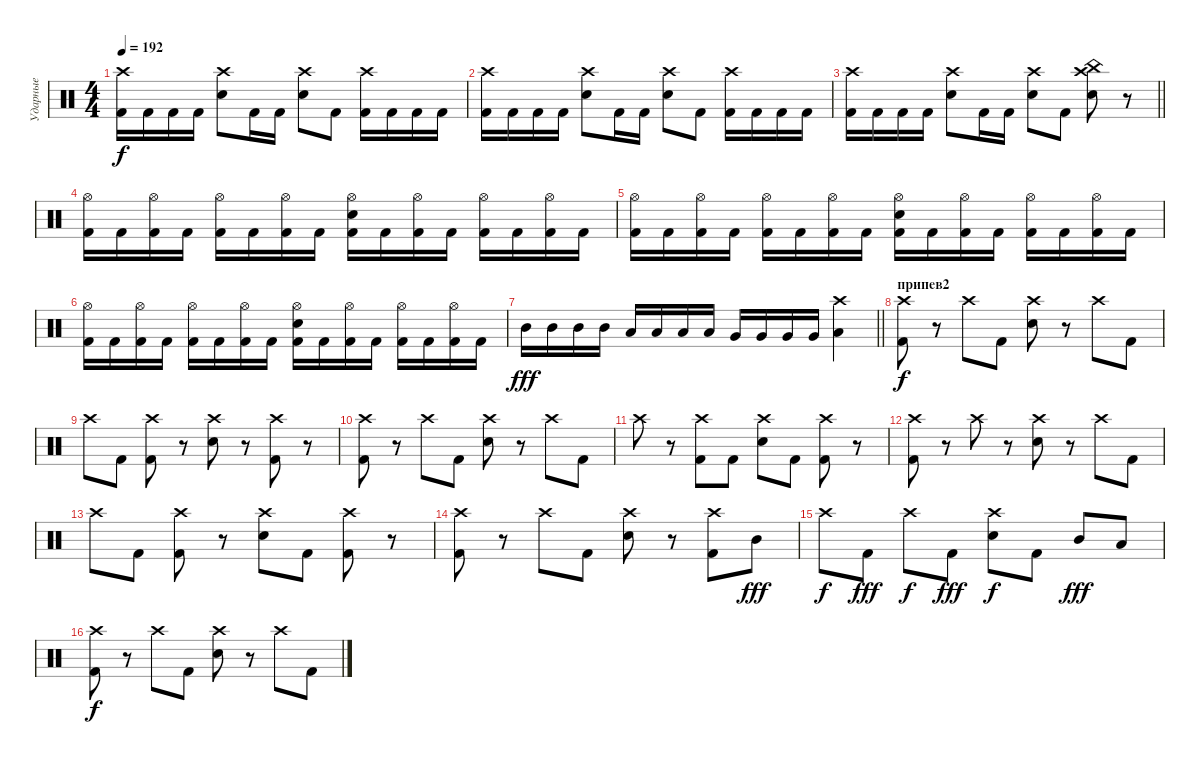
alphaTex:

\track ("Ударные" "Ударные") {instrument percussion}
\staff {score}
\articulation defaults
\ts (4 4)
\tempo 192
\clef neutral
\ks c
("Crash high (hit)" "Kick (hit) 2").16{dy f} "Kick (hit) 2".16 "Kick (hit) 2".16 "Kick (hit) 2".16 ("Crash high (hit)" "Electric Snare (hit)").8 "Kick (hit) 2".16 "Kick (hit) 2".16 ("Crash high (hit)" "Electric Snare (hit)").8 "Kick (hit) 2".8 ("Crash high (hit)" "Kick (hit) 2").16 "Kick (hit) 2".16 "Kick (hit) 2".16 "Kick (hit) 2".16 |
("Crash high (hit)" "Kick (hit) 2").16 "Kick (hit) 2".16 "Kick (hit) 2".16 "Kick (hit) 2".16 ("Crash high (hit)" "Electric Snare (hit)").8 "Kick (hit) 2".16 "Kick (hit) 2".16 ("Crash high (hit)" "Electric Snare (hit)").8 "Kick (hit) 2".8 ("Crash high (hit)" "Kick (hit) 2").16 "Kick (hit) 2".16 "Kick (hit) 2".16 "Kick (hit) 2".16 |
\barLineRight lightlight
("Crash high (hit)" "Kick (hit) 2").16 "Kick (hit) 2".16 "Kick (hit) 2".16 "Kick (hit) 2".16 ("Crash high (hit)" "Electric Snare (hit)").8 "Kick (hit) 2".16 "Kick (hit) 2".16 ("Crash high (hit)" "Electric Snare (hit)").8 "Kick (hit) 2".8 ("Crash high (hit)" "China (hit)" "Electric Snare (hit)").8 r.8 |
("Hi-Hat (open)" "Kick (hit) 2").16 "Kick (hit) 2".16 ("Hi-Hat (open)" "Kick (hit) 2").16 "Kick (hit) 2".16 ("Hi-Hat (open)" "Kick (hit) 2").16 "Kick (hit) 2".16 ("Hi-Hat (open)" "Kick (hit) 2").16 "Kick (hit) 2".16 ("Hi-Hat (open)" "Electric Snare (hit)" "Kick (hit) 2").16 "Kick (hit) 2".16 ("Hi-Hat (open)" "Kick (hit) 2").16 "Kick (hit) 2".16 ("Hi-Hat (open)" "Kick (hit) 2").16 "Kick (hit) 2".16 ("Hi-Hat (open)" "Kick (hit) 2").16 "Kick (hit) 2".16 |
("Hi-Hat (open)" "Kick (hit) 2").16 "Kick (hit) 2".16 ("Hi-Hat (open)" "Kick (hit) 2").16 "Kick (hit) 2".16 ("Hi-Hat (open)" "Kick (hit) 2").16 "Kick (hit) 2".16 ("Hi-Hat (open)" "Kick (hit) 2").16 "Kick (hit) 2".16 ("Hi-Hat (open)" "Electric Snare (hit)" "Kick (hit) 2").16 "Kick (hit) 2".16 ("Hi-Hat (open)" "Kick (hit) 2").16 "Kick (hit) 2".16 ("Hi-Hat (open)" "Kick (hit) 2").16 "Kick (hit) 2".16 ("Hi-Hat (open)" "Kick (hit) 2").16 "Kick (hit) 2".16 |
("Hi-Hat (open)" "Kick (hit) 2").16 "Kick (hit) 2".16 ("Hi-Hat (open)" "Kick (hit) 2").16 "Kick (hit) 2".16 ("Hi-Hat (open)" "Kick (hit) 2").16 "Kick (hit) 2".16 ("Hi-Hat (open)" "Kick (hit) 2").16 "Kick (hit) 2".16 ("Hi-Hat (open)" "Electric Snare (hit)" "Kick (hit) 2").16 "Kick (hit) 2".16 ("Hi-Hat (open)" "Kick (hit) 2").16 "Kick (hit) 2".16 ("Hi-Hat (open)" "Kick (hit) 2").16 "Kick (hit) 2".16 ("Hi-Hat (open)" "Kick (hit) 2").16 "Kick (hit) 2".16 |
\barLineRight lightlight "Mid Tom (hit)".16{dy fff} "Mid Tom (hit)".16 "Mid Tom (hit)".16 "Mid Tom (hit)".16 "Low Tom (hit)".16 "Low Tom (hit)".16 "Low Tom (hit)".16 "Low Tom (hit)".16 "Very Low Tom (hit)".16 "Very Low Tom (hit)".16 "Very Low Tom (hit)".16 "Very Low Tom (hit)".16
("Crash high (hit)" "Low Floor Tom (hit)").4 |
\section ("" "припев2")
("Crash high (hit)" "Kick (hit) 2").8{dy f} r.8 "Crash high (hit)".8 "Kick (hit) 2".8 ("Crash high (hit)" "Electric Snare (hit)").8 r.8 "Crash high (hit)".8 "Kick (hit) 2".8 |
"Crash high (hit)".8 "Kick (hit) 2".8 ("Crash high (hit)" "Kick (hit) 2").8 r.8 ("Crash high (hit)" "Electric Snare (hit)").8 r.8 ("Crash high (hit)" "Kick (hit) 2").8 r.8 |
("Crash high (hit)" "Kick (hit) 2").8 r.8 "Crash high (hit)".8 "Kick (hit) 2".8 ("Crash high (hit)" "Electric Snare (hit)").8 r.8 "Crash high (hit)".8 "Kick (hit) 2".8 |
"Crash high (hit)".8 r.8 ("Crash high (hit)" "Kick (hit) 2").8 "Kick (hit) 2".8 ("Crash high (hit)" "Electric Snare (hit)").8 "Kick (hit) 2".8 ("Crash high (hit)" "Kick (hit) 2").8 r.8 |
("Crash high (hit)" "Kick (hit) 2").8 r.8 "Crash high (hit)".8 r.8 ("Crash high (hit)" "Electric Snare (hit)").8 r.8 "Crash high (hit)".8 "Kick (hit) 2".8 |
"Crash high (hit)".8 "Kick (hit) 2".8 ("Crash high (hit)" "Kick (hit) 2").8 r.8 ("Crash high (hit)" "Electric Snare (hit)").8 "Kick (hit) 2".8 ("Crash high (hit)" "Kick (hit) 2").8 r.8 |
("Crash high (hit)" "Kick (hit) 2").8 r.8 "Crash high (hit)".8 "Kick (hit) 2".8 ("Crash high (hit)" "Electric Snare (hit)").8 r.8 ("Crash high (hit)" "Kick (hit) 2").8 "Mid Tom (hit)".8{dy fff} |
"Crash high (hit)".8{dy f} "Kick (hit) 2".8{dy fff} "Crash high (hit)".8{dy f} "Kick (hit) 2".8{dy fff} ("Crash high (hit)" "Electric Snare (hit)").8{dy f} "Kick (hit) 2".8 "Mid Tom (hit)".8{dy fff} "Low Tom (hit)".8 |
("Crash high (hit)" "Kick (hit) 2").8{dy f} r.8 "Crash high (hit)".8 "Kick (hit) 2".8 ("Crash high (hit)" "Electric Snare (hit)").8 r.8 "Crash high (hit)".8 "Kick (hit) 2".8
